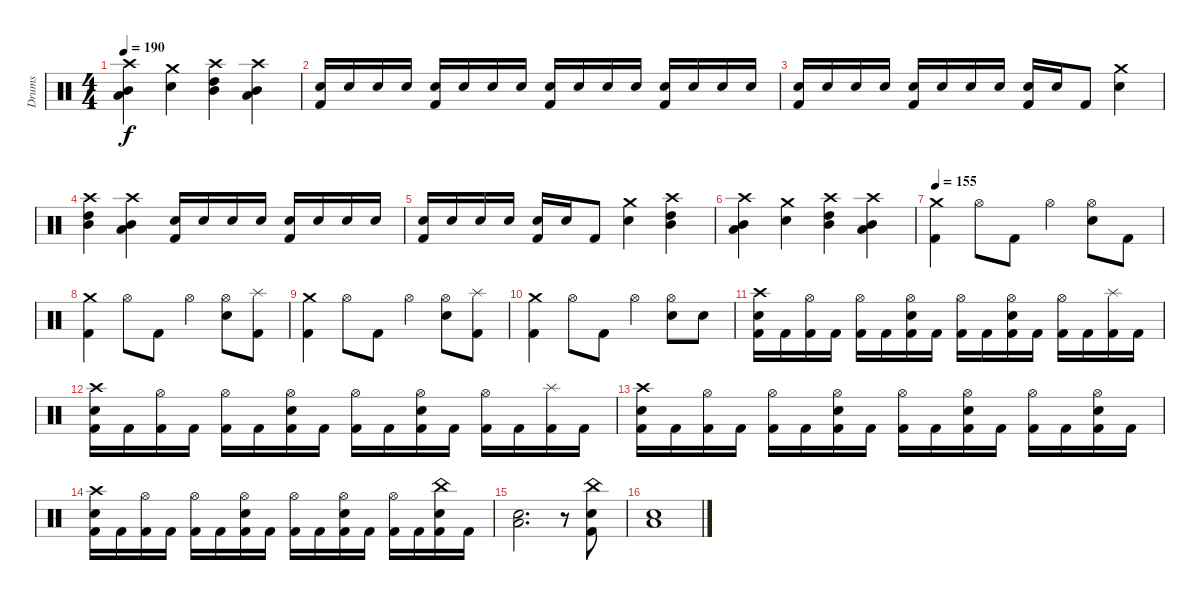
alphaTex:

\track ("Drums" "Drums") {instrument percussion}
\staff {score}
\articulation defaults
\ts (4 4)
\tempo 190
\clef neutral
\ks c
("Crash high (hit)" "Mid Tom (hit)" "Low Tom (hit)").4{dy f} ("Crash medium (hit)" "Electric Snare (hit)").4 ("Crash high (hit)" "High Tom (hit)" "Mid Tom (hit)").4 ("Crash high (hit)" "Mid Tom (hit)" "Low Tom (hit)").4 |
("Electric Snare (hit)" "Kick (hit) 2").16 "Electric Snare (hit)".16 "Electric Snare (hit)".16 "Electric Snare (hit)".16 ("Electric Snare (hit)" "Kick (hit) 2").16 "Electric Snare (hit)".16 "Electric Snare (hit)".16 "Electric Snare (hit)".16 ("Electric Snare (hit)" "Kick (hit) 2").16 "Electric Snare (hit)".16 "Electric Snare (hit)".16 "Electric Snare (hit)".16 ("Electric Snare (hit)" "Kick (hit) 2").16 "Electric Snare (hit)".16 "Electric Snare (hit)".16 "Electric Snare (hit)".16 |
("Electric Snare (hit)" "Kick (hit) 2").16 "Electric Snare (hit)".16 "Electric Snare (hit)".16 "Electric Snare (hit)".16 ("Electric Snare (hit)" "Kick (hit) 2").16 "Electric Snare (hit)".16 "Electric Snare (hit)".16 "Electric Snare (hit)".16 ("Electric Snare (hit)" "Kick (hit) 2").16 "Electric Snare (hit)".16 "Kick (hit) 2".8 ("Crash medium (hit)" "Electric Snare (hit)").4 |
("Crash high (hit)" "High Tom (hit)" "Mid Tom (hit)").4 ("Crash high (hit)" "Mid Tom (hit)" "Low Tom (hit)").4 ("Electric Snare (hit)" "Kick (hit) 2").16 "Electric Snare (hit)".16 "Electric Snare (hit)".16 "Electric Snare (hit)".16 ("Electric Snare (hit)" "Kick (hit) 2").16 "Electric Snare (hit)".16 "Electric Snare (hit)".16 "Electric Snare (hit)".16 |
("Electric Snare (hit)" "Kick (hit) 2").16 "Electric Snare (hit)".16 "Electric Snare (hit)".16 "Electric Snare (hit)".16 ("Electric Snare (hit)" "Kick (hit) 2").16 "Electric Snare (hit)".16 "Kick (hit) 2".8 ("Crash medium (hit)" "Electric Snare (hit)").4 ("Crash high (hit)" "High Tom (hit)" "Mid Tom (hit)").4 |
("Crash high (hit)" "Mid Tom (hit)" "Low Tom (hit)").4 ("Crash medium (hit)" "Electric Snare (hit)").4 ("Crash high (hit)" "High Tom (hit)" "Mid Tom (hit)").4 ("Crash high (hit)" "Mid Tom (hit)" "Low Tom (hit)").4 |
\tempo 155
("Crash medium (hit)" "Kick (hit) 2").4 "Hi-Hat (open)".8 "Kick (hit) 2".8 "Hi-Hat (open)".4 ("Hi-Hat (open)" "Electric Snare (hit)").8 "Kick (hit) 2".8 |
("Crash medium (hit)" "Kick (hit) 2").4 "Hi-Hat (open)".8 "Kick (hit) 2".8 "Hi-Hat (open)".4 ("Hi-Hat (open)" "Electric Snare (hit)").8 ("Splash (hit)" "Kick (hit) 2").8 |
("Crash medium (hit)" "Kick (hit) 2").4 "Hi-Hat (open)".8 "Kick (hit) 2".8 "Hi-Hat (open)".4 ("Hi-Hat (open)" "Electric Snare (hit)").8 ("Splash (hit)" "Kick (hit) 2").8 |
("Crash medium (hit)" "Kick (hit) 2").4 "Hi-Hat (open)".8 "Kick (hit) 2".8 "Hi-Hat (open)".4 ("Hi-Hat (open)" "Electric Snare (hit)").8 "Electric Snare (hit)".8 |
("Crash high (hit)" "Electric Snare (hit)" "Kick (hit) 2").16 "Kick (hit) 2".16 ("Hi-Hat (open)" "Kick (hit) 2").16 "Kick (hit) 2".16 ("Hi-Hat (open)" "Kick (hit) 2").16 "Kick (hit) 2".16 ("Hi-Hat (open)" "Electric Snare (hit)" "Kick (hit) 2").16 "Kick (hit) 2".16 ("Hi-Hat (open)" "Kick (hit) 2").16 "Kick (hit) 2".16 ("Hi-Hat (open)" "Electric Snare (hit)" "Kick (hit) 2").16 "Kick (hit) 2".16 ("Hi-Hat (open)" "Kick (hit) 2").16 "Kick (hit) 2".16 ("Splash (hit)" "Kick (hit) 2").16 "Kick (hit) 2".16 |
("Crash high (hit)" "Electric Snare (hit)" "Kick (hit) 2").16 "Kick (hit) 2".16 ("Hi-Hat (open)" "Kick (hit) 2").16 "Kick (hit) 2".16 ("Hi-Hat (open)" "Kick (hit) 2").16 "Kick (hit) 2".16 ("Hi-Hat (open)" "Electric Snare (hit)" "Kick (hit) 2").16 "Kick (hit) 2".16 ("Hi-Hat (open)" "Kick (hit) 2").16 "Kick (hit) 2".16 ("Hi-Hat (open)" "Electric Snare (hit)" "Kick (hit) 2").16 "Kick (hit) 2".16 ("Hi-Hat (open)" "Kick (hit) 2").16 "Kick (hit) 2".16 ("Splash (hit)" "Kick (hit) 2").16 "Kick (hit) 2".16 |
("Crash high (hit)" "Electric Snare (hit)" "Kick (hit) 2").16 "Kick (hit) 2".16 ("Hi-Hat (open)" "Kick (hit) 2").16 "Kick (hit) 2".16 ("Hi-Hat (open)" "Kick (hit) 2").16 "Kick (hit) 2".16 ("Hi-Hat (open)" "Electric Snare (hit)" "Kick (hit) 2").16 "Kick (hit) 2".16 ("Hi-Hat (open)" "Kick (hit) 2").16 "Kick (hit) 2".16 ("Hi-Hat (open)" "Electric Snare (hit)" "Kick (hit) 2").16 "Kick (hit) 2".16 ("Hi-Hat (open)" "Kick (hit) 2").16 "Kick (hit) 2".16 ("Hi-Hat (open)" "Electric Snare (hit)" "Kick (hit) 2").16 "Kick (hit) 2".16 |
("Crash high (hit)" "Electric Snare (hit)" "Kick (hit) 2").16 "Kick (hit) 2".16 ("Hi-Hat (open)" "Kick (hit) 2").16 "Kick (hit) 2".16 ("Hi-Hat (open)" "Kick (hit) 2").16 "Kick (hit) 2".16 ("Hi-Hat (open)" "Electric Snare (hit)" "Kick (hit) 2").16 "Kick (hit) 2".16 ("Hi-Hat (open)" "Kick (hit) 2").16 "Kick (hit) 2".16 ("Hi-Hat (open)" "Electric Snare (hit)" "Kick (hit) 2").16 "Kick (hit) 2".16 ("Hi-Hat (open)" "Kick (hit) 2").16 "Kick (hit) 2".16 ("China (hit)" "Electric Snare (hit)" "Kick (hit) 2").16 "Kick (hit) 2".16 |
("Electric Snare (hit)" "Low Tom (hit)").2{d} r.8 ("China (hit)" "Electric Snare (hit)" "Kick (hit) 2").8 |
("Electric Snare (hit)" "Low Tom (hit)").1
